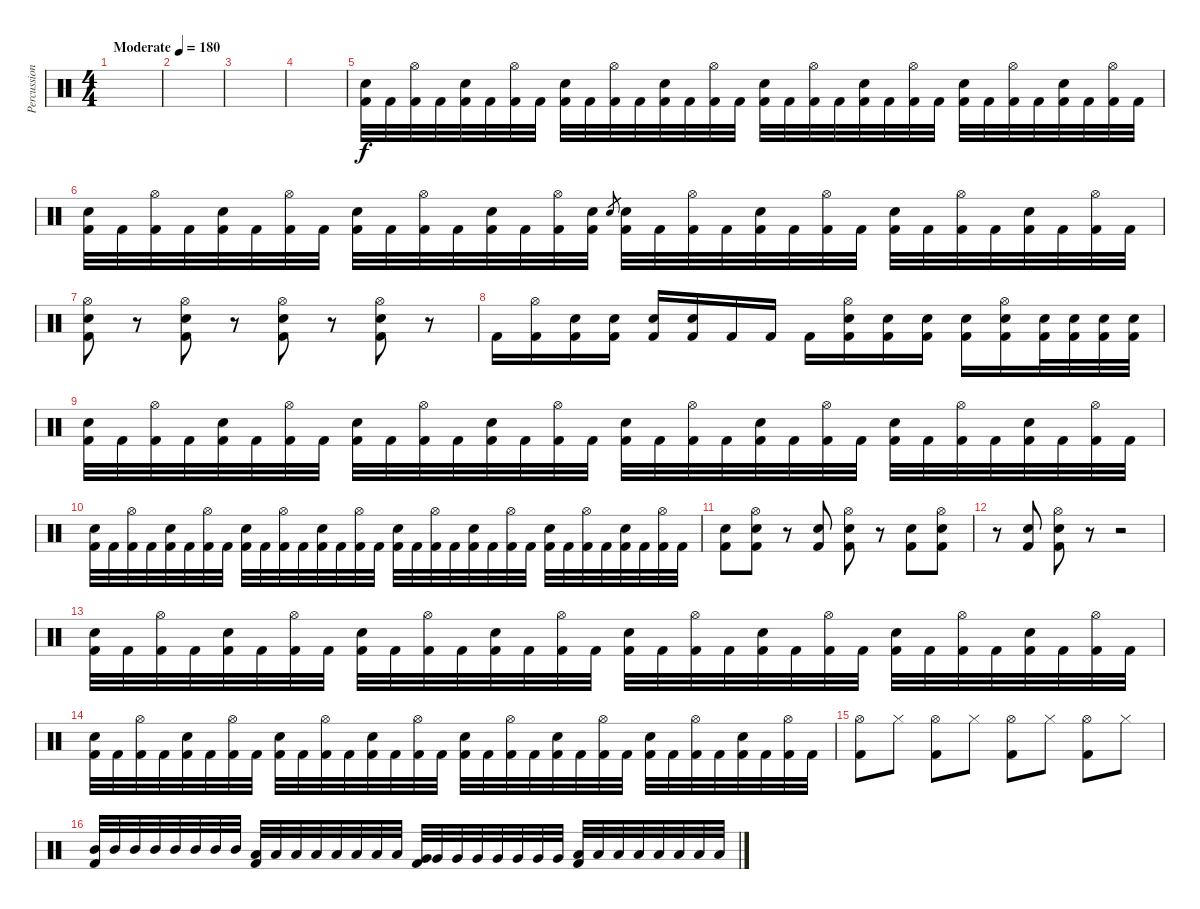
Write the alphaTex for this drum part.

\track ("Percussions" "Percussion") {instrument percussion}
\staff {score}
\articulation defaults
\ts (4 4)
\tempo (180 "Moderate")
\clef neutral
\ks c
|
|
|
|
("Snare (hit) 2" "Kick (hit) 2").32 "Kick (hit) 2".32 ("Hi-Hat (open)" "Kick (hit) 2").32 "Kick (hit) 2".32 ("Snare (hit) 2" "Kick (hit) 2").32 "Kick (hit) 2".32 ("Hi-Hat (open)" "Kick (hit) 2").32 "Kick (hit) 2".32 ("Snare (hit) 2" "Kick (hit) 2").32 "Kick (hit) 2".32 ("Hi-Hat (open)" "Kick (hit) 2").32 "Kick (hit) 2".32 ("Snare (hit) 2" "Kick (hit) 2").32 "Kick (hit) 2".32 ("Hi-Hat (open)" "Kick (hit) 2").32 "Kick (hit) 2".32 ("Snare (hit) 2" "Kick (hit) 2").32 "Kick (hit) 2".32 ("Hi-Hat (open)" "Kick (hit) 2").32 "Kick (hit) 2".32 ("Snare (hit) 2" "Kick (hit) 2").32 "Kick (hit) 2".32 ("Hi-Hat (open)" "Kick (hit) 2").32 "Kick (hit) 2".32 ("Snare (hit) 2" "Kick (hit) 2").32 "Kick (hit) 2".32 ("Hi-Hat (open)" "Kick (hit) 2").32 "Kick (hit) 2".32 ("Snare (hit) 2" "Kick (hit) 2").32 "Kick (hit) 2".32 ("Hi-Hat (open)" "Kick (hit) 2").32 "Kick (hit) 2".32 |
("Snare (hit) 2" "Kick (hit) 2").32 "Kick (hit) 2".32 ("Hi-Hat (open)" "Kick (hit) 2").32 "Kick (hit) 2".32 ("Snare (hit) 2" "Kick (hit) 2").32 "Kick (hit) 2".32 ("Hi-Hat (open)" "Kick (hit) 2").32 "Kick (hit) 2".32 ("Snare (hit) 2" "Kick (hit) 2").32 "Kick (hit) 2".32 ("Hi-Hat (open)" "Kick (hit) 2").32 "Kick (hit) 2".32 ("Snare (hit) 2" "Kick (hit) 2").32 "Kick (hit) 2".32 ("Hi-Hat (open)" "Kick (hit) 2").32 ("Snare (hit) 2" "Kick (hit) 2").32 "Snare (hit) 2".8{gr} ("Snare (hit) 2" "Kick (hit) 2").32 "Kick (hit) 2".32 ("Hi-Hat (open)" "Kick (hit) 2").32 "Kick (hit) 2".32 ("Snare (hit) 2" "Kick (hit) 2").32 "Kick (hit) 2".32 ("Hi-Hat (open)" "Kick (hit) 2").32 "Kick (hit) 2".32 ("Snare (hit) 2" "Kick (hit) 2").32 "Kick (hit) 2".32 ("Hi-Hat (open)" "Kick (hit) 2").32 "Kick (hit) 2".32 ("Snare (hit) 2" "Kick (hit) 2").32 "Kick (hit) 2".32 ("Hi-Hat (open)" "Kick (hit) 2").32 "Kick (hit) 2".32 |
("Hi-Hat (open)" "Snare (hit) 2" "Kick (hit) 2").8 r.8 ("Hi-Hat (open)" "Snare (hit) 2" "Kick (hit) 2").8 r.8 ("Hi-Hat (open)" "Snare (hit) 2" "Kick (hit) 2").8 r.8 ("Hi-Hat (open)" "Snare (hit) 2" "Kick (hit) 2").8 r.8 |
"Kick (hit) 2".16 ("Hi-Hat (open)" "Kick (hit) 2").16 ("Snare (hit) 2" "Kick (hit) 2").16 ("Snare (hit) 2" "Kick (hit) 2").16 ("Snare (hit) 2" "Kick (hit) 2").16 ("Snare (hit) 2" "Kick (hit) 2").16 "Kick (hit) 2".16 "Kick (hit) 2".16 "Kick (hit) 2".16 ("Hi-Hat (open)" "Snare (hit) 2" "Kick (hit) 2").16 ("Snare (hit) 2" "Kick (hit) 2").16 ("Snare (hit) 2" "Kick (hit) 2").16 ("Snare (hit) 2" "Kick (hit) 2").16 ("Hi-Hat (open)" "Snare (hit) 2" "Kick (hit) 2").16 ("Snare (hit) 2" "Kick (hit) 2").32 ("Snare (hit) 2" "Kick (hit) 2").32 ("Snare (hit) 2" "Kick (hit) 2").32 ("Snare (hit) 2" "Kick (hit) 2").32 |
("Snare (hit) 2" "Kick (hit) 2").32 "Kick (hit) 2".32 ("Hi-Hat (open)" "Kick (hit) 2").32 "Kick (hit) 2".32 ("Snare (hit) 2" "Kick (hit) 2").32 "Kick (hit) 2".32 ("Hi-Hat (open)" "Kick (hit) 2").32 "Kick (hit) 2".32 ("Snare (hit) 2" "Kick (hit) 2").32 "Kick (hit) 2".32 ("Hi-Hat (open)" "Kick (hit) 2").32 "Kick (hit) 2".32 ("Snare (hit) 2" "Kick (hit) 2").32 "Kick (hit) 2".32 ("Hi-Hat (open)" "Kick (hit) 2").32 "Kick (hit) 2".32 ("Snare (hit) 2" "Kick (hit) 2").32 "Kick (hit) 2".32 ("Hi-Hat (open)" "Kick (hit) 2").32 "Kick (hit) 2".32 ("Snare (hit) 2" "Kick (hit) 2").32 "Kick (hit) 2".32 ("Hi-Hat (open)" "Kick (hit) 2").32 "Kick (hit) 2".32 ("Snare (hit) 2" "Kick (hit) 2").32 "Kick (hit) 2".32 ("Hi-Hat (open)" "Kick (hit) 2").32 "Kick (hit) 2".32 ("Snare (hit) 2" "Kick (hit) 2").32 "Kick (hit) 2".32 ("Hi-Hat (open)" "Kick (hit) 2").32 "Kick (hit) 2".32 |
("Snare (hit) 2" "Kick (hit) 2").32 "Kick (hit) 2".32 ("Hi-Hat (open)" "Kick (hit) 2").32 "Kick (hit) 2".32 ("Snare (hit) 2" "Kick (hit) 2").32 "Kick (hit) 2".32 ("Hi-Hat (open)" "Kick (hit) 2").32 "Kick (hit) 2".32 ("Snare (hit) 2" "Kick (hit) 2").32 "Kick (hit) 2".32 ("Hi-Hat (open)" "Kick (hit) 2").32 "Kick (hit) 2".32 ("Snare (hit) 2" "Kick (hit) 2").32 "Kick (hit) 2".32 ("Hi-Hat (open)" "Kick (hit) 2").32 "Kick (hit) 2".32 ("Snare (hit) 2" "Kick (hit) 2").32 "Kick (hit) 2".32 ("Hi-Hat (open)" "Kick (hit) 2").32 "Kick (hit) 2".32 ("Snare (hit) 2" "Kick (hit) 2").32 "Kick (hit) 2".32 ("Hi-Hat (open)" "Kick (hit) 2").32 "Kick (hit) 2".32 ("Snare (hit) 2" "Kick (hit) 2").32 "Kick (hit) 2".32 ("Hi-Hat (open)" "Kick (hit) 2").32 "Kick (hit) 2".32 ("Snare (hit) 2" "Kick (hit) 2").32 "Kick (hit) 2".32 ("Hi-Hat (open)" "Kick (hit) 2").32 "Kick (hit) 2".32 |
("Snare (hit) 2" "Kick (hit) 2").8 ("Hi-Hat (open)" "Snare (hit) 2" "Kick (hit) 2").8 r.8 ("Snare (hit) 2" "Kick (hit) 2").8 ("Hi-Hat (open)" "Snare (hit) 2" "Kick (hit) 2").8 r.8 ("Snare (hit) 2" "Kick (hit) 2").8 ("Hi-Hat (open)" "Snare (hit) 2" "Kick (hit) 2").8 |
r.8 ("Snare (hit) 2" "Kick (hit) 2").8 ("Hi-Hat (open)" "Snare (hit) 2" "Kick (hit) 2").8 r.8 r.2 |
("Snare (hit) 2" "Kick (hit) 2").32 "Kick (hit) 2".32 ("Hi-Hat (open)" "Kick (hit) 2").32 "Kick (hit) 2".32 ("Snare (hit) 2" "Kick (hit) 2").32 "Kick (hit) 2".32 ("Hi-Hat (open)" "Kick (hit) 2").32 "Kick (hit) 2".32 ("Snare (hit) 2" "Kick (hit) 2").32 "Kick (hit) 2".32 ("Hi-Hat (open)" "Kick (hit) 2").32 "Kick (hit) 2".32 ("Snare (hit) 2" "Kick (hit) 2").32 "Kick (hit) 2".32 ("Hi-Hat (open)" "Kick (hit) 2").32 "Kick (hit) 2".32 ("Snare (hit) 2" "Kick (hit) 2").32 "Kick (hit) 2".32 ("Hi-Hat (open)" "Kick (hit) 2").32 "Kick (hit) 2".32 ("Snare (hit) 2" "Kick (hit) 2").32 "Kick (hit) 2".32 ("Hi-Hat (open)" "Kick (hit) 2").32 "Kick (hit) 2".32 ("Snare (hit) 2" "Kick (hit) 2").32 "Kick (hit) 2".32 ("Hi-Hat (open)" "Kick (hit) 2").32 "Kick (hit) 2".32 ("Snare (hit) 2" "Kick (hit) 2").32 "Kick (hit) 2".32 ("Hi-Hat (open)" "Kick (hit) 2").32 "Kick (hit) 2".32 |
("Snare (hit) 2" "Kick (hit) 2").32 "Kick (hit) 2".32 ("Hi-Hat (open)" "Kick (hit) 2").32 "Kick (hit) 2".32 ("Snare (hit) 2" "Kick (hit) 2").32 "Kick (hit) 2".32 ("Hi-Hat (open)" "Kick (hit) 2").32 "Kick (hit) 2".32 ("Snare (hit) 2" "Kick (hit) 2").32 "Kick (hit) 2".32 ("Hi-Hat (open)" "Kick (hit) 2").32 "Kick (hit) 2".32 ("Snare (hit) 2" "Kick (hit) 2").32 "Kick (hit) 2".32 ("Hi-Hat (open)" "Kick (hit) 2").32 "Kick (hit) 2".32 ("Snare (hit) 2" "Kick (hit) 2").32 "Kick (hit) 2".32 ("Hi-Hat (open)" "Kick (hit) 2").32 "Kick (hit) 2".32 ("Snare (hit) 2" "Kick (hit) 2").32 "Kick (hit) 2".32 ("Hi-Hat (open)" "Kick (hit) 2").32 "Kick (hit) 2".32 ("Snare (hit) 2" "Kick (hit) 2").32 "Kick (hit) 2".32 ("Hi-Hat (open)" "Kick (hit) 2").32 "Kick (hit) 2".32 ("Snare (hit) 2" "Kick (hit) 2").32 "Kick (hit) 2".32 ("Hi-Hat (open)" "Kick (hit) 2").32 "Kick (hit) 2".32 |
("Hi-Hat (open)" "Kick (hit) 2").8 "Hi-Hat (closed)".8 ("Hi-Hat (open)" "Kick (hit) 2").8 "Hi-Hat (closed)".8 ("Hi-Hat (open)" "Kick (hit) 2").8 "Hi-Hat (closed)".8 ("Hi-Hat (open)" "Kick (hit) 2").8 "Hi-Hat (closed)".8 |
("Mid Tom (hit)" "Kick (hit) 2").32 "Mid Tom (hit)".32 "Mid Tom (hit)".32 "Mid Tom (hit)".32 "Mid Tom (hit)".32 "Mid Tom (hit)".32 "Mid Tom (hit)".32 "Mid Tom (hit)".32 ("Low Tom (hit)" "Kick (hit) 2").32 "Low Tom (hit)".32 "Low Tom (hit)".32 "Low Tom (hit)".32 "Low Tom (hit)".32 "Low Tom (hit)".32 "Low Tom (hit)".32 "Low Tom (hit)".32 ("Very Low Tom (hit)" "Kick (hit) 2").32 "Very Low Tom (hit)".32 "Very Low Tom (hit)".32 "Very Low Tom (hit)".32 "Very Low Tom (hit)".32 "Very Low Tom (hit)".32 "Very Low Tom (hit)".32 "Very Low Tom (hit)".32 ("Low Floor Tom (hit)" "Kick (hit) 2").32 "Low Floor Tom (hit)".32 "Low Floor Tom (hit)".32 "Low Floor Tom (hit)".32 "Low Floor Tom (hit)".32 "Low Floor Tom (hit)".32 "Low Floor Tom (hit)".32 "Low Floor Tom (hit)".32
